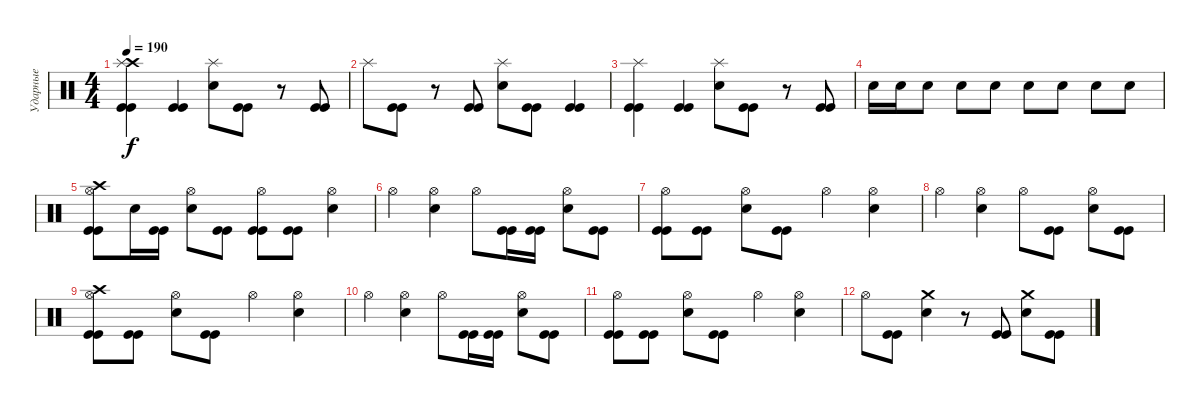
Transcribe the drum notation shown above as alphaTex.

\track ("Ударные" "Ударные") {instrument percussion}
\staff {score}
\articulation defaults
\ts (4 4)
\tempo 190
\clef neutral
\ks c
("Crash high (hit)" "Splash (hit)" "Kick (hit)" "Kick (hit)").4{dy f} ("Kick (hit)" "Kick (hit)").4 ("Splash (hit)" "Electric Snare (hit)").8 ("Kick (hit)" "Kick (hit)").8 r.8 ("Kick (hit)" "Kick (hit)").8 |
"Splash (hit)".8 ("Kick (hit)" "Kick (hit)").8 r.8 ("Kick (hit)" "Kick (hit)").8 ("Splash (hit)" "Electric Snare (hit)").8 ("Kick (hit)" "Kick (hit)").8 ("Kick (hit)" "Kick (hit)").4 |
("Splash (hit)" "Kick (hit)" "Kick (hit)").4 ("Kick (hit)" "Kick (hit)").4 ("Splash (hit)" "Electric Snare (hit)").8 ("Kick (hit)" "Kick (hit)").8 r.8 ("Kick (hit)" "Kick (hit)").8 |
"Electric Snare (hit)".16 "Electric Snare (hit)".16 "Electric Snare (hit)".8 "Electric Snare (hit)".8 "Electric Snare (hit)".8 "Electric Snare (hit)".8 "Electric Snare (hit)".8 "Electric Snare (hit)".8 "Electric Snare (hit)".8 |
("Crash high (hit)" "Hi-Hat (open)" "Kick (hit)" "Kick (hit)").8 "Electric Snare (hit)".16 ("Kick (hit)" "Kick (hit)").16 ("Hi-Hat (open)" "Electric Snare (hit)").8 ("Kick (hit)" "Kick (hit)").8 ("Hi-Hat (open)" "Kick (hit)" "Kick (hit)").8 ("Kick (hit)" "Kick (hit)").8 ("Hi-Hat (open)" "Electric Snare (hit)").4 |
"Hi-Hat (open)".4 ("Hi-Hat (open)" "Electric Snare (hit)").4 "Hi-Hat (open)".8 ("Kick (hit)" "Kick (hit)").16 ("Kick (hit)" "Kick (hit)").16 ("Hi-Hat (open)" "Electric Snare (hit)").8 ("Kick (hit)" "Kick (hit)").8 |
("Hi-Hat (open)" "Kick (hit)" "Kick (hit)").8 ("Kick (hit)" "Kick (hit)").8 ("Hi-Hat (open)" "Electric Snare (hit)").8 ("Kick (hit)" "Kick (hit)").8 "Hi-Hat (open)".4 ("Hi-Hat (open)" "Electric Snare (hit)").4 |
"Hi-Hat (open)".4 ("Hi-Hat (open)" "Electric Snare (hit)").4 "Hi-Hat (open)".8 ("Kick (hit)" "Kick (hit)").8 ("Hi-Hat (open)" "Electric Snare (hit)").8 ("Kick (hit)" "Kick (hit)").8 |
("Crash high (hit)" "Hi-Hat (open)" "Kick (hit)" "Kick (hit)").8 ("Kick (hit)" "Kick (hit)").8 ("Hi-Hat (open)" "Electric Snare (hit)").8 ("Kick (hit)" "Kick (hit)").8 "Hi-Hat (open)".4 ("Hi-Hat (open)" "Electric Snare (hit)").4 |
"Hi-Hat (open)".4 ("Hi-Hat (open)" "Electric Snare (hit)").4 "Hi-Hat (open)".8 ("Kick (hit)" "Kick (hit)").16 ("Kick (hit)" "Kick (hit)").16 ("Hi-Hat (open)" "Electric Snare (hit)").8 ("Kick (hit)" "Kick (hit)").8 |
("Hi-Hat (open)" "Kick (hit)" "Kick (hit)").8 ("Kick (hit)" "Kick (hit)").8 ("Hi-Hat (open)" "Electric Snare (hit)").8 ("Kick (hit)" "Kick (hit)").8 "Hi-Hat (open)".4 ("Hi-Hat (open)" "Electric Snare (hit)").4 |
"Hi-Hat (open)".8 ("Kick (hit)" "Kick (hit)").8 ("Crash medium (hit)" "Electric Snare (hit)").4 r.8 ("Kick (hit)" "Kick (hit)").8 ("Crash medium (hit)" "Electric Snare (hit)").8 ("Kick (hit)" "Kick (hit)").8
